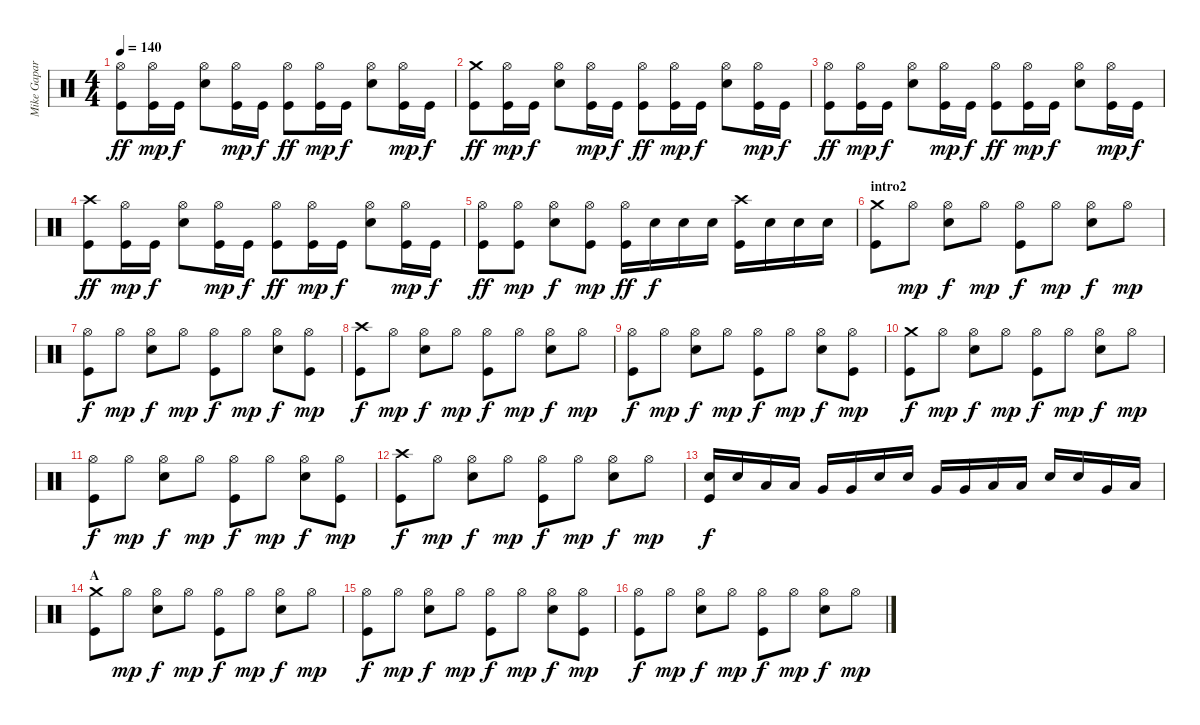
\track ("Mike Gapar" "Mike Gapar") {instrument percussion}
\staff {score}
\articulation defaults
\ts (4 4)
\tempo 140
\clef neutral
\ks c
("Hi-Hat (open)" "Kick (hit)").8{dy ff} ("Hi-Hat (open)" "Kick (hit)").16{dy mp} "Kick (hit)".16{dy f} ("Hi-Hat (open)" "Electric Snare (hit)").8 ("Hi-Hat (open)" "Kick (hit)").16{dy mp} "Kick (hit)".16{dy f} ("Hi-Hat (open)" "Kick (hit)").8{dy ff} ("Hi-Hat (open)" "Kick (hit)").16{dy mp} "Kick (hit)".16{dy f} ("Hi-Hat (open)" "Electric Snare (hit)").8 ("Hi-Hat (open)" "Kick (hit)").16{dy mp} "Kick (hit)".16{dy f} |
("Crash medium (hit)" "Kick (hit)").8{dy ff} ("Hi-Hat (open)" "Kick (hit)").16{dy mp} "Kick (hit)".16{dy f} ("Hi-Hat (open)" "Electric Snare (hit)").8 ("Hi-Hat (open)" "Kick (hit)").16{dy mp} "Kick (hit)".16{dy f} ("Hi-Hat (open)" "Kick (hit)").8{dy ff} ("Hi-Hat (open)" "Kick (hit)").16{dy mp} "Kick (hit)".16{dy f} ("Hi-Hat (open)" "Electric Snare (hit)").8 ("Hi-Hat (open)" "Kick (hit)").16{dy mp} "Kick (hit)".16{dy f} |
("Hi-Hat (open)" "Kick (hit)").8{dy ff} ("Hi-Hat (open)" "Kick (hit)").16{dy mp} "Kick (hit)".16{dy f} ("Hi-Hat (open)" "Electric Snare (hit)").8 ("Hi-Hat (open)" "Kick (hit)").16{dy mp} "Kick (hit)".16{dy f} ("Hi-Hat (open)" "Kick (hit)").8{dy ff} ("Hi-Hat (open)" "Kick (hit)").16{dy mp} "Kick (hit)".16{dy f} ("Hi-Hat (open)" "Electric Snare (hit)").8 ("Hi-Hat (open)" "Kick (hit)").16{dy mp} "Kick (hit)".16{dy f} |
("Crash high (hit)" "Kick (hit)").8{dy ff} ("Hi-Hat (open)" "Kick (hit)").16{dy mp} "Kick (hit)".16{dy f} ("Hi-Hat (open)" "Electric Snare (hit)").8 ("Hi-Hat (open)" "Kick (hit)").16{dy mp} "Kick (hit)".16{dy f} ("Hi-Hat (open)" "Kick (hit)").8{dy ff} ("Hi-Hat (open)" "Kick (hit)").16{dy mp} "Kick (hit)".16{dy f} ("Hi-Hat (open)" "Electric Snare (hit)").8 ("Hi-Hat (open)" "Kick (hit)").16{dy mp} "Kick (hit)".16{dy f} |
("Hi-Hat (open)" "Kick (hit)").8{dy ff} ("Hi-Hat (open)" "Kick (hit)").8{dy mp} ("Hi-Hat (open)" "Electric Snare (hit)").8{dy f} ("Hi-Hat (open)" "Kick (hit)").8{dy mp} ("Hi-Hat (open)" "Kick (hit)").16{dy ff} "Electric Snare (hit)".16{dy f} "Electric Snare (hit)".16 "Electric Snare (hit)".16 ("Crash high (hit)" "Kick (hit)").16 "Electric Snare (hit)".16 "Electric Snare (hit)".16 "Electric Snare (hit)".16 |
\section ("" "intro2")
("Crash medium (hit)" "Kick (hit)").8 "Hi-Hat (open)".8{dy mp} ("Hi-Hat (open)" "Electric Snare (hit)").8{dy f} "Hi-Hat (open)".8{dy mp} ("Hi-Hat (open)" "Kick (hit)").8{dy f} "Hi-Hat (open)".8{dy mp} ("Hi-Hat (open)" "Electric Snare (hit)").8{dy f} "Hi-Hat (open)".8{dy mp} |
("Hi-Hat (open)" "Kick (hit)").8{dy f} "Hi-Hat (open)".8{dy mp} ("Hi-Hat (open)" "Electric Snare (hit)").8{dy f} "Hi-Hat (open)".8{dy mp} ("Hi-Hat (open)" "Kick (hit)").8{dy f} "Hi-Hat (open)".8{dy mp} ("Hi-Hat (open)" "Electric Snare (hit)").8{dy f} ("Hi-Hat (open)" "Kick (hit)").8{dy mp} |
("Crash high (hit)" "Kick (hit)").8{dy f} "Hi-Hat (open)".8{dy mp} ("Hi-Hat (open)" "Electric Snare (hit)").8{dy f} "Hi-Hat (open)".8{dy mp} ("Hi-Hat (open)" "Kick (hit)").8{dy f} "Hi-Hat (open)".8{dy mp} ("Hi-Hat (open)" "Electric Snare (hit)").8{dy f} "Hi-Hat (open)".8{dy mp} |
("Hi-Hat (open)" "Kick (hit)").8{dy f} "Hi-Hat (open)".8{dy mp} ("Hi-Hat (open)" "Electric Snare (hit)").8{dy f} "Hi-Hat (open)".8{dy mp} ("Hi-Hat (open)" "Kick (hit)").8{dy f} "Hi-Hat (open)".8{dy mp} ("Hi-Hat (open)" "Electric Snare (hit)").8{dy f} ("Hi-Hat (open)" "Kick (hit)").8{dy mp} |
("Crash medium (hit)" "Kick (hit)").8{dy f} "Hi-Hat (open)".8{dy mp} ("Hi-Hat (open)" "Electric Snare (hit)").8{dy f} "Hi-Hat (open)".8{dy mp} ("Hi-Hat (open)" "Kick (hit)").8{dy f} "Hi-Hat (open)".8{dy mp} ("Hi-Hat (open)" "Electric Snare (hit)").8{dy f} "Hi-Hat (open)".8{dy mp} |
("Hi-Hat (open)" "Kick (hit)").8{dy f} "Hi-Hat (open)".8{dy mp} ("Hi-Hat (open)" "Electric Snare (hit)").8{dy f} "Hi-Hat (open)".8{dy mp} ("Hi-Hat (open)" "Kick (hit)").8{dy f} "Hi-Hat (open)".8{dy mp} ("Hi-Hat (open)" "Electric Snare (hit)").8{dy f} ("Hi-Hat (open)" "Kick (hit)").8{dy mp} |
("Crash high (hit)" "Kick (hit)").8{dy f} "Hi-Hat (open)".8{dy mp} ("Hi-Hat (open)" "Electric Snare (hit)").8{dy f} "Hi-Hat (open)".8{dy mp} ("Hi-Hat (open)" "Kick (hit)").8{dy f} "Hi-Hat (open)".8{dy mp} ("Hi-Hat (open)" "Electric Snare (hit)").8{dy f} "Hi-Hat (open)".8{dy mp} |
("Electric Snare (hit)" "Kick (hit)").16{dy f} "Electric Snare (hit)".16 "Low Tom (hit)".16 "Low Tom (hit)".16 "Very Low Tom (hit)".16 "Very Low Tom (hit)".16 "Electric Snare (hit)".16 "Electric Snare (hit)".16 "Very Low Tom (hit)".16 "Very Low Tom (hit)".16 "Low Floor Tom (hit)".16 "Low Floor Tom (hit)".16 "Electric Snare (hit)".16 "Electric Snare (hit)".16 "Very Low Tom (hit)".16 "Low Floor Tom (hit)".16 |
\section ("" "A")
("Crash medium (hit)" "Kick (hit)").8 "Hi-Hat (open)".8{dy mp} ("Hi-Hat (open)" "Electric Snare (hit)").8{dy f} "Hi-Hat (open)".8{dy mp} ("Hi-Hat (open)" "Kick (hit)").8{dy f} "Hi-Hat (open)".8{dy mp} ("Hi-Hat (open)" "Electric Snare (hit)").8{dy f} "Hi-Hat (open)".8{dy mp} |
("Hi-Hat (open)" "Kick (hit)").8{dy f} "Hi-Hat (open)".8{dy mp} ("Hi-Hat (open)" "Electric Snare (hit)").8{dy f} "Hi-Hat (open)".8{dy mp} ("Hi-Hat (open)" "Kick (hit)").8{dy f} "Hi-Hat (open)".8{dy mp} ("Hi-Hat (open)" "Electric Snare (hit)").8{dy f} ("Hi-Hat (open)" "Kick (hit)").8{dy mp} |
("Hi-Hat (open)" "Kick (hit)").8{dy f} "Hi-Hat (open)".8{dy mp} ("Hi-Hat (open)" "Electric Snare (hit)").8{dy f} "Hi-Hat (open)".8{dy mp} ("Hi-Hat (open)" "Kick (hit)").8{dy f} "Hi-Hat (open)".8{dy mp} ("Hi-Hat (open)" "Electric Snare (hit)").8{dy f} "Hi-Hat (open)".8{dy mp}
